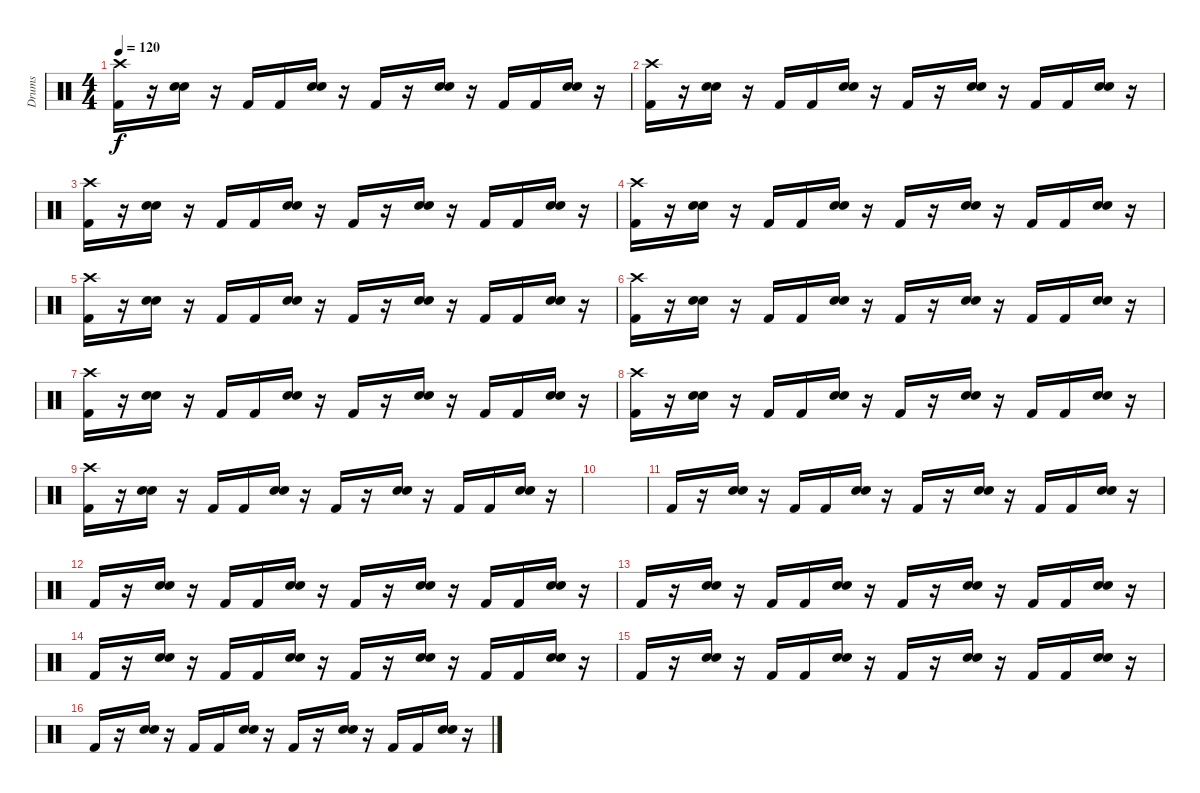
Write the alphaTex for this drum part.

\track ("Drums" "Drums") {instrument percussion}
\staff {score}
\articulation defaults
\ts (4 4)
\tempo 120
\clef neutral
\ks c
("Crash high (hit)" "Kick (hit) 2").16{dy f} r.16 ("Snare (hit) 2" "Snare (hit) 2").16 r.16 "Kick (hit) 2".16 "Kick (hit) 2".16 ("Snare (hit) 2" "Snare (hit) 2").16 r.16 "Kick (hit) 2".16 r.16 ("Snare (hit) 2" "Snare (hit) 2").16 r.16 "Kick (hit) 2".16 "Kick (hit) 2".16 ("Snare (hit) 2" "Snare (hit) 2").16 r.16 |
("Crash high (hit)" "Kick (hit) 2").16 r.16 ("Snare (hit) 2" "Snare (hit) 2").16 r.16 "Kick (hit) 2".16 "Kick (hit) 2".16 ("Snare (hit) 2" "Snare (hit) 2").16 r.16 "Kick (hit) 2".16 r.16 ("Snare (hit) 2" "Snare (hit) 2").16 r.16 "Kick (hit) 2".16 "Kick (hit) 2".16 ("Snare (hit) 2" "Snare (hit) 2").16 r.16 |
("Crash high (hit)" "Kick (hit) 2").16 r.16 ("Snare (hit) 2" "Snare (hit) 2").16 r.16 "Kick (hit) 2".16 "Kick (hit) 2".16 ("Snare (hit) 2" "Snare (hit) 2").16 r.16 "Kick (hit) 2".16 r.16 ("Snare (hit) 2" "Snare (hit) 2").16 r.16 "Kick (hit) 2".16 "Kick (hit) 2".16 ("Snare (hit) 2" "Snare (hit) 2").16 r.16 |
("Crash high (hit)" "Kick (hit) 2").16 r.16 ("Snare (hit) 2" "Snare (hit) 2").16 r.16 "Kick (hit) 2".16 "Kick (hit) 2".16 ("Snare (hit) 2" "Snare (hit) 2").16 r.16 "Kick (hit) 2".16 r.16 ("Snare (hit) 2" "Snare (hit) 2").16 r.16 "Kick (hit) 2".16 "Kick (hit) 2".16 ("Snare (hit) 2" "Snare (hit) 2").16 r.16 |
("Crash high (hit)" "Kick (hit) 2").16 r.16 ("Snare (hit) 2" "Snare (hit) 2").16 r.16 "Kick (hit) 2".16 "Kick (hit) 2".16 ("Snare (hit) 2" "Snare (hit) 2").16 r.16 "Kick (hit) 2".16 r.16 ("Snare (hit) 2" "Snare (hit) 2").16 r.16 "Kick (hit) 2".16 "Kick (hit) 2".16 ("Snare (hit) 2" "Snare (hit) 2").16 r.16 |
("Crash high (hit)" "Kick (hit) 2").16 r.16 ("Snare (hit) 2" "Snare (hit) 2").16 r.16 "Kick (hit) 2".16 "Kick (hit) 2".16 ("Snare (hit) 2" "Snare (hit) 2").16 r.16 "Kick (hit) 2".16 r.16 ("Snare (hit) 2" "Snare (hit) 2").16 r.16 "Kick (hit) 2".16 "Kick (hit) 2".16 ("Snare (hit) 2" "Snare (hit) 2").16 r.16 |
("Crash high (hit)" "Kick (hit) 2").16 r.16 ("Snare (hit) 2" "Snare (hit) 2").16 r.16 "Kick (hit) 2".16 "Kick (hit) 2".16 ("Snare (hit) 2" "Snare (hit) 2").16 r.16 "Kick (hit) 2".16 r.16 ("Snare (hit) 2" "Snare (hit) 2").16 r.16 "Kick (hit) 2".16 "Kick (hit) 2".16 ("Snare (hit) 2" "Snare (hit) 2").16 r.16 |
("Crash high (hit)" "Kick (hit) 2").16 r.16 ("Snare (hit) 2" "Snare (hit) 2").16 r.16 "Kick (hit) 2".16 "Kick (hit) 2".16 ("Snare (hit) 2" "Snare (hit) 2").16 r.16 "Kick (hit) 2".16 r.16 ("Snare (hit) 2" "Snare (hit) 2").16 r.16 "Kick (hit) 2".16 "Kick (hit) 2".16 ("Snare (hit) 2" "Snare (hit) 2").16 r.16 |
("Crash high (hit)" "Kick (hit) 2").16 r.16 ("Snare (hit) 2" "Snare (hit) 2").16 r.16 "Kick (hit) 2".16 "Kick (hit) 2".16 ("Snare (hit) 2" "Snare (hit) 2").16 r.16 "Kick (hit) 2".16 r.16 ("Snare (hit) 2" "Snare (hit) 2").16 r.16 "Kick (hit) 2".16 "Kick (hit) 2".16 ("Snare (hit) 2" "Snare (hit) 2").16 r.16 |
|
"Kick (hit) 2".16 r.16 ("Snare (hit) 2" "Snare (hit) 2").16 r.16 "Kick (hit) 2".16 "Kick (hit) 2".16 ("Snare (hit) 2" "Snare (hit) 2").16 r.16 "Kick (hit) 2".16 r.16 ("Snare (hit) 2" "Snare (hit) 2").16 r.16 "Kick (hit) 2".16 "Kick (hit) 2".16 ("Snare (hit) 2" "Snare (hit) 2").16 r.16 |
"Kick (hit) 2".16 r.16 ("Snare (hit) 2" "Snare (hit) 2").16 r.16 "Kick (hit) 2".16 "Kick (hit) 2".16 ("Snare (hit) 2" "Snare (hit) 2").16 r.16 "Kick (hit) 2".16 r.16 ("Snare (hit) 2" "Snare (hit) 2").16 r.16 "Kick (hit) 2".16 "Kick (hit) 2".16 ("Snare (hit) 2" "Snare (hit) 2").16 r.16 |
"Kick (hit) 2".16 r.16 ("Snare (hit) 2" "Snare (hit) 2").16 r.16 "Kick (hit) 2".16 "Kick (hit) 2".16 ("Snare (hit) 2" "Snare (hit) 2").16 r.16 "Kick (hit) 2".16 r.16 ("Snare (hit) 2" "Snare (hit) 2").16 r.16 "Kick (hit) 2".16 "Kick (hit) 2".16 ("Snare (hit) 2" "Snare (hit) 2").16 r.16 |
"Kick (hit) 2".16 r.16 ("Snare (hit) 2" "Snare (hit) 2").16 r.16 "Kick (hit) 2".16 "Kick (hit) 2".16 ("Snare (hit) 2" "Snare (hit) 2").16 r.16 "Kick (hit) 2".16 r.16 ("Snare (hit) 2" "Snare (hit) 2").16 r.16 "Kick (hit) 2".16 "Kick (hit) 2".16 ("Snare (hit) 2" "Snare (hit) 2").16 r.16 |
"Kick (hit) 2".16 r.16 ("Snare (hit) 2" "Snare (hit) 2").16 r.16 "Kick (hit) 2".16 "Kick (hit) 2".16 ("Snare (hit) 2" "Snare (hit) 2").16 r.16 "Kick (hit) 2".16 r.16 ("Snare (hit) 2" "Snare (hit) 2").16 r.16 "Kick (hit) 2".16 "Kick (hit) 2".16 ("Snare (hit) 2" "Snare (hit) 2").16 r.16 |
"Kick (hit) 2".16 r.16 ("Snare (hit) 2" "Snare (hit) 2").16 r.16 "Kick (hit) 2".16 "Kick (hit) 2".16 ("Snare (hit) 2" "Snare (hit) 2").16 r.16 "Kick (hit) 2".16 r.16 ("Snare (hit) 2" "Snare (hit) 2").16 r.16 "Kick (hit) 2".16 "Kick (hit) 2".16 ("Snare (hit) 2" "Snare (hit) 2").16 r.16
